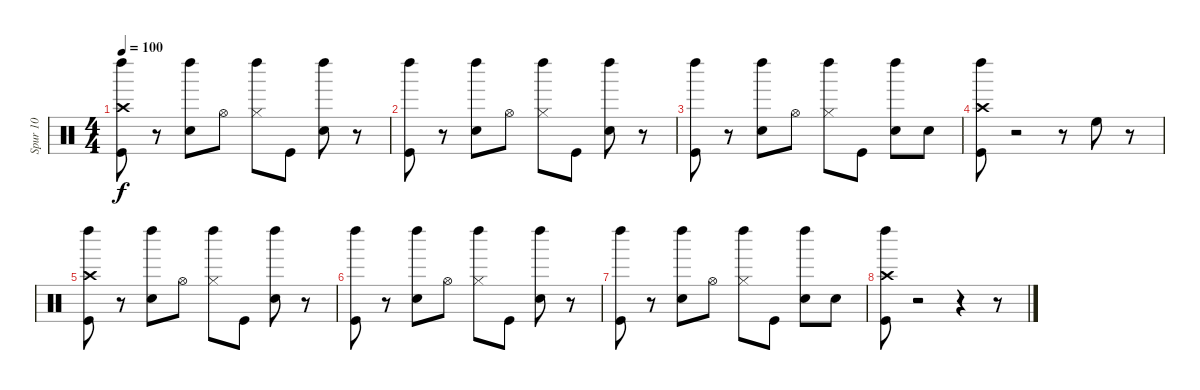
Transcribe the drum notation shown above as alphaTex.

\track ("Spur 10" "Spur 10") {instrument percussion}
\staff {score}
\articulation defaults
\ts (4 4)
\tempo 100
\clef neutral
\ks c
("Crash high (hit)" "Kick (hit)" "Left Maraca (hit)").8{dy f} r.8 ("Snare (hit) 2" "Left Maraca (hit)").8 "Hi-Hat (open)".8 ("Hi-Hat (closed)" "Left Maraca (hit)").8 "Kick (hit)".8 ("Snare (hit) 2" "Left Maraca (hit)").8 r.8 |
("Kick (hit)" "Left Maraca (hit)").8 r.8 ("Snare (hit) 2" "Left Maraca (hit)").8 "Hi-Hat (open)".8 ("Hi-Hat (closed)" "Left Maraca (hit)").8 "Kick (hit)".8 ("Snare (hit) 2" "Left Maraca (hit)").8 r.8 |
("Kick (hit)" "Left Maraca (hit)").8 r.8 ("Snare (hit) 2" "Left Maraca (hit)").8 "Hi-Hat (open)".8 ("Hi-Hat (closed)" "Left Maraca (hit)").8 "Kick (hit)".8 ("Snare (hit) 2" "Left Maraca (hit)").8 "Snare (hit) 2".8 |
("Crash high (hit)" "Kick (hit)" "Left Maraca (hit)").8 r.2 r.8 "High Floor Tom (hit)".8 r.8 |
("Crash high (hit)" "Kick (hit)" "Left Maraca (hit)").8 r.8 ("Snare (hit) 2" "Left Maraca (hit)").8 "Hi-Hat (open)".8 ("Hi-Hat (closed)" "Left Maraca (hit)").8 "Kick (hit)".8 ("Snare (hit) 2" "Left Maraca (hit)").8 r.8 |
("Kick (hit)" "Left Maraca (hit)").8 r.8 ("Snare (hit) 2" "Left Maraca (hit)").8 "Hi-Hat (open)".8 ("Hi-Hat (closed)" "Left Maraca (hit)").8 "Kick (hit)".8 ("Snare (hit) 2" "Left Maraca (hit)").8 r.8 |
("Kick (hit)" "Left Maraca (hit)").8 r.8 ("Snare (hit) 2" "Left Maraca (hit)").8 "Hi-Hat (open)".8 ("Hi-Hat (closed)" "Left Maraca (hit)").8 "Kick (hit)".8 ("Snare (hit) 2" "Left Maraca (hit)").8 "Snare (hit) 2".8 |
("Crash high (hit)" "Kick (hit)" "Left Maraca (hit)").8 r.2 r.4 r.8
